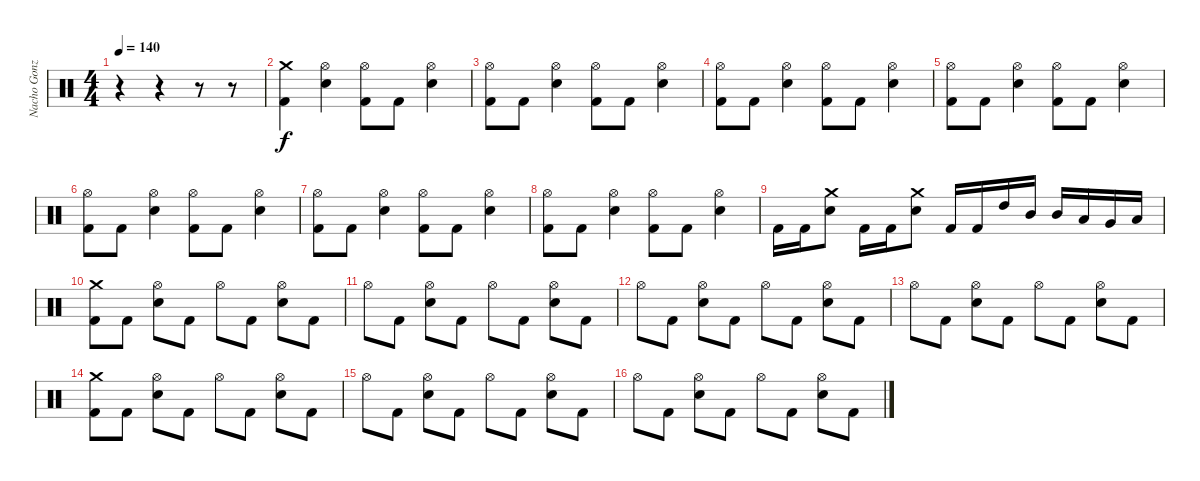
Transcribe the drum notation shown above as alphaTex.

\track ("Nacho Gonzalez" "Nacho Gonz") {instrument percussion}
\staff {score}
\articulation defaults
\ts (4 4)
\tempo 140
\clef neutral
\ks c
r.4{dy f} r.4 r.8 r.8 |
("Crash medium (hit)" "Kick (hit) 2").4 ("Hi-Hat (open)" "Electric Snare (hit)").4 ("Hi-Hat (open)" "Kick (hit) 2").8 "Kick (hit) 2".8 ("Hi-Hat (open)" "Electric Snare (hit)").4 |
("Hi-Hat (open)" "Kick (hit) 2").8 "Kick (hit) 2".8 ("Hi-Hat (open)" "Electric Snare (hit)").4 ("Hi-Hat (open)" "Kick (hit) 2").8 "Kick (hit) 2".8 ("Hi-Hat (open)" "Electric Snare (hit)").4 |
("Hi-Hat (open)" "Kick (hit) 2").8 "Kick (hit) 2".8 ("Hi-Hat (open)" "Electric Snare (hit)").4 ("Hi-Hat (open)" "Kick (hit) 2").8 "Kick (hit) 2".8 ("Hi-Hat (open)" "Electric Snare (hit)").4 |
("Hi-Hat (open)" "Kick (hit) 2").8 "Kick (hit) 2".8 ("Hi-Hat (open)" "Electric Snare (hit)").4 ("Hi-Hat (open)" "Kick (hit) 2").8 "Kick (hit) 2".8 ("Hi-Hat (open)" "Electric Snare (hit)").4 |
("Hi-Hat (open)" "Kick (hit) 2").8 "Kick (hit) 2".8 ("Hi-Hat (open)" "Electric Snare (hit)").4 ("Hi-Hat (open)" "Kick (hit) 2").8 "Kick (hit) 2".8 ("Hi-Hat (open)" "Electric Snare (hit)").4 |
("Hi-Hat (open)" "Kick (hit) 2").8 "Kick (hit) 2".8 ("Hi-Hat (open)" "Electric Snare (hit)").4 ("Hi-Hat (open)" "Kick (hit) 2").8 "Kick (hit) 2".8 ("Hi-Hat (open)" "Electric Snare (hit)").4 |
("Hi-Hat (open)" "Kick (hit) 2").8 "Kick (hit) 2".8 ("Hi-Hat (open)" "Electric Snare (hit)").4 ("Hi-Hat (open)" "Kick (hit) 2").8 "Kick (hit) 2".8 ("Hi-Hat (open)" "Electric Snare (hit)").4 |
"Kick (hit) 2".16 "Kick (hit) 2".16 ("Crash medium (hit)" "Electric Snare (hit)").8 "Kick (hit) 2".16 "Kick (hit) 2".16 ("Crash medium (hit)" "Electric Snare (hit)").8 "Kick (hit) 2".16 "Kick (hit) 2".16 "High Tom (hit)".16 "Mid Tom (hit)".16 "Mid Tom (hit)".16 "Low Tom (hit)".16 "Very Low Tom (hit)".16 "Low Floor Tom (hit)".16 |
("Crash medium (hit)" "Kick (hit) 2").8 "Kick (hit) 2".8 ("Hi-Hat (open)" "Electric Snare (hit)").8 "Kick (hit) 2".8 "Hi-Hat (open)".8 "Kick (hit) 2".8 ("Hi-Hat (open)" "Electric Snare (hit)").8 "Kick (hit) 2".8 |
"Hi-Hat (open)".8 "Kick (hit) 2".8 ("Hi-Hat (open)" "Electric Snare (hit)").8 "Kick (hit) 2".8 "Hi-Hat (open)".8 "Kick (hit) 2".8 ("Hi-Hat (open)" "Electric Snare (hit)").8 "Kick (hit) 2".8 |
"Hi-Hat (open)".8 "Kick (hit) 2".8 ("Hi-Hat (open)" "Electric Snare (hit)").8 "Kick (hit) 2".8 "Hi-Hat (open)".8 "Kick (hit) 2".8 ("Hi-Hat (open)" "Electric Snare (hit)").8 "Kick (hit) 2".8 |
"Hi-Hat (open)".8 "Kick (hit) 2".8 ("Hi-Hat (open)" "Electric Snare (hit)").8 "Kick (hit) 2".8 "Hi-Hat (open)".8 "Kick (hit) 2".8 ("Hi-Hat (open)" "Electric Snare (hit)").8 "Kick (hit) 2".8 |
("Crash medium (hit)" "Kick (hit) 2").8 "Kick (hit) 2".8 ("Hi-Hat (open)" "Electric Snare (hit)").8 "Kick (hit) 2".8 "Hi-Hat (open)".8 "Kick (hit) 2".8 ("Hi-Hat (open)" "Electric Snare (hit)").8 "Kick (hit) 2".8 |
"Hi-Hat (open)".8 "Kick (hit) 2".8 ("Hi-Hat (open)" "Electric Snare (hit)").8 "Kick (hit) 2".8 "Hi-Hat (open)".8 "Kick (hit) 2".8 ("Hi-Hat (open)" "Electric Snare (hit)").8 "Kick (hit) 2".8 |
"Hi-Hat (open)".8 "Kick (hit) 2".8 ("Hi-Hat (open)" "Electric Snare (hit)").8 "Kick (hit) 2".8 "Hi-Hat (open)".8 "Kick (hit) 2".8 ("Hi-Hat (open)" "Electric Snare (hit)").8 "Kick (hit) 2".8
